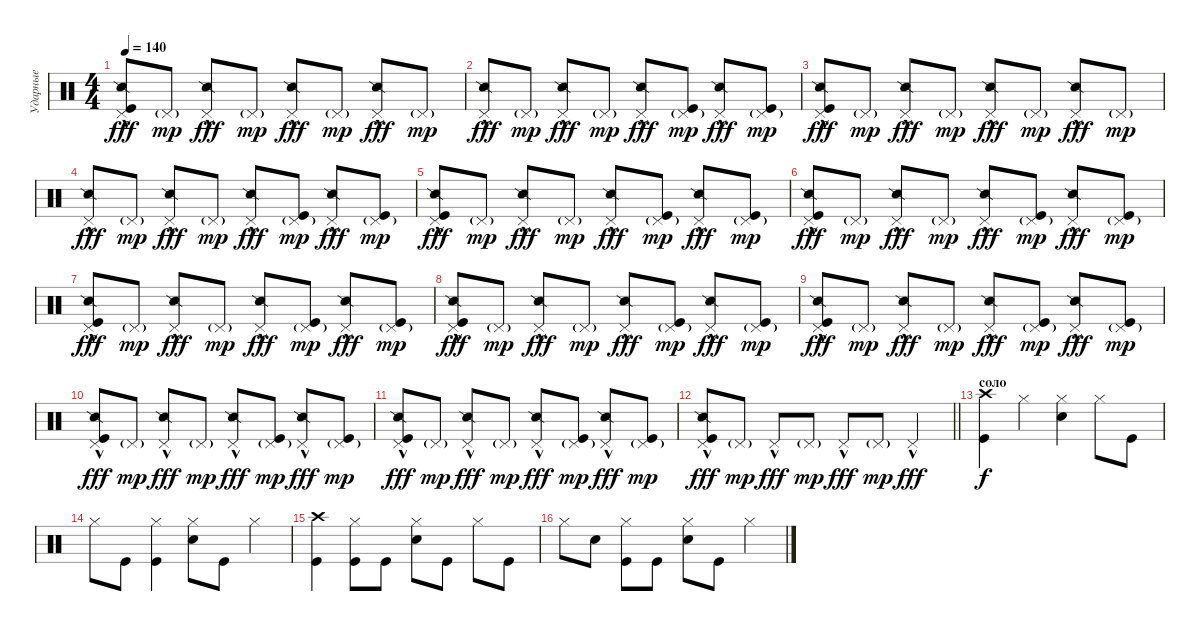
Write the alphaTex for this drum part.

\track ("Ударные" "Ударные") {instrument percussion}
\staff {score}
\articulation defaults
\ts (4 4)
\tempo 140
\clef neutral
\ks c
("Pedal Hi-Hat (hit)"{hac} "Snare (side stick) 2" "Kick (hit)").8{dy fff} "Pedal Hi-Hat (hit)"{g}.8{dy mp} ("Pedal Hi-Hat (hit)"{hac} "Snare (side stick) 2").8{dy fff} "Pedal Hi-Hat (hit)"{g}.8{dy mp} ("Pedal Hi-Hat (hit)"{hac} "Snare (side stick) 2").8{dy fff} "Pedal Hi-Hat (hit)"{g}.8{dy mp} ("Pedal Hi-Hat (hit)"{hac} "Snare (side stick) 2").8{dy fff} "Pedal Hi-Hat (hit)"{g}.8{dy mp} |
("Pedal Hi-Hat (hit)"{hac} "Snare (side stick) 2").8{dy fff} "Pedal Hi-Hat (hit)"{g}.8{dy mp} ("Pedal Hi-Hat (hit)"{hac} "Snare (side stick) 2").8{dy fff} "Pedal Hi-Hat (hit)"{g}.8{dy mp} ("Pedal Hi-Hat (hit)"{hac} "Snare (side stick) 2").8{dy fff} ("Pedal Hi-Hat (hit)"{g} "Kick (hit)").8{dy mp} ("Pedal Hi-Hat (hit)"{hac} "Snare (side stick) 2").8{dy fff} ("Pedal Hi-Hat (hit)"{g} "Kick (hit)").8{dy mp} |
("Pedal Hi-Hat (hit)"{hac} "Snare (side stick) 2" "Kick (hit)").8{dy fff} "Pedal Hi-Hat (hit)"{g}.8{dy mp} ("Pedal Hi-Hat (hit)"{hac} "Snare (side stick) 2").8{dy fff} "Pedal Hi-Hat (hit)"{g}.8{dy mp} ("Pedal Hi-Hat (hit)"{hac} "Snare (side stick) 2").8{dy fff} "Pedal Hi-Hat (hit)"{g}.8{dy mp} ("Pedal Hi-Hat (hit)"{hac} "Snare (side stick) 2").8{dy fff} "Pedal Hi-Hat (hit)"{g}.8{dy mp} |
("Pedal Hi-Hat (hit)"{hac} "Snare (side stick) 2").8{dy fff} "Pedal Hi-Hat (hit)"{g}.8{dy mp} ("Pedal Hi-Hat (hit)"{hac} "Snare (side stick) 2").8{dy fff} "Pedal Hi-Hat (hit)"{g}.8{dy mp} ("Pedal Hi-Hat (hit)"{hac} "Snare (side stick) 2").8{dy fff} ("Pedal Hi-Hat (hit)"{g} "Kick (hit)").8{dy mp} ("Pedal Hi-Hat (hit)"{hac} "Snare (side stick) 2").8{dy fff} ("Pedal Hi-Hat (hit)"{g} "Kick (hit)").8{dy mp} |
("Pedal Hi-Hat (hit)"{hac} "Snare (side stick) 2" "Kick (hit)").8{dy fff} "Pedal Hi-Hat (hit)"{g}.8{dy mp} ("Pedal Hi-Hat (hit)"{hac} "Snare (side stick) 2").8{dy fff} "Pedal Hi-Hat (hit)"{g}.8{dy mp} ("Pedal Hi-Hat (hit)"{hac} "Snare (side stick) 2").8{dy fff} ("Pedal Hi-Hat (hit)"{g} "Kick (hit)").8{dy mp} ("Pedal Hi-Hat (hit)"{hac} "Snare (side stick) 2").8{dy fff} ("Pedal Hi-Hat (hit)"{g} "Kick (hit)").8{dy mp} |
("Pedal Hi-Hat (hit)"{hac} "Snare (side stick) 2" "Kick (hit)").8{dy fff} "Pedal Hi-Hat (hit)"{g}.8{dy mp} ("Pedal Hi-Hat (hit)"{hac} "Snare (side stick) 2").8{dy fff} "Pedal Hi-Hat (hit)"{g}.8{dy mp} ("Pedal Hi-Hat (hit)"{hac} "Snare (side stick) 2").8{dy fff} ("Pedal Hi-Hat (hit)"{g} "Kick (hit)").8{dy mp} ("Pedal Hi-Hat (hit)"{hac} "Snare (side stick) 2").8{dy fff} ("Pedal Hi-Hat (hit)"{g} "Kick (hit)").8{dy mp} |
("Pedal Hi-Hat (hit)"{hac} "Snare (side stick) 2" "Kick (hit)").8{dy fff} "Pedal Hi-Hat (hit)"{g}.8{dy mp} ("Pedal Hi-Hat (hit)"{hac} "Snare (side stick) 2").8{dy fff} "Pedal Hi-Hat (hit)"{g}.8{dy mp} ("Pedal Hi-Hat (hit)"{hac} "Snare (side stick) 2").8{dy fff} ("Pedal Hi-Hat (hit)"{g} "Kick (hit)").8{dy mp} ("Pedal Hi-Hat (hit)"{hac} "Snare (side stick) 2").8{dy fff} ("Pedal Hi-Hat (hit)"{g} "Kick (hit)").8{dy mp} |
("Pedal Hi-Hat (hit)"{hac} "Snare (side stick) 2" "Kick (hit)").8{dy fff} "Pedal Hi-Hat (hit)"{g}.8{dy mp} ("Pedal Hi-Hat (hit)"{hac} "Snare (side stick) 2").8{dy fff} "Pedal Hi-Hat (hit)"{g}.8{dy mp} ("Pedal Hi-Hat (hit)"{hac} "Snare (side stick) 2").8{dy fff} ("Pedal Hi-Hat (hit)"{g} "Kick (hit)").8{dy mp} ("Pedal Hi-Hat (hit)"{hac} "Snare (side stick) 2").8{dy fff} ("Pedal Hi-Hat (hit)"{g} "Kick (hit)").8{dy mp} |
("Pedal Hi-Hat (hit)"{hac} "Snare (side stick) 2" "Kick (hit)").8{dy fff} "Pedal Hi-Hat (hit)"{g}.8{dy mp} ("Pedal Hi-Hat (hit)"{hac} "Snare (side stick) 2").8{dy fff} "Pedal Hi-Hat (hit)"{g}.8{dy mp} ("Pedal Hi-Hat (hit)"{hac} "Snare (side stick) 2").8{dy fff} ("Pedal Hi-Hat (hit)"{g} "Kick (hit)").8{dy mp} ("Pedal Hi-Hat (hit)"{hac} "Snare (side stick) 2").8{dy fff} ("Pedal Hi-Hat (hit)"{g} "Kick (hit)").8{dy mp} |
("Pedal Hi-Hat (hit)"{hac} "Snare (side stick) 2" "Kick (hit)").8{dy fff} "Pedal Hi-Hat (hit)"{g}.8{dy mp} ("Pedal Hi-Hat (hit)"{hac} "Snare (side stick) 2").8{dy fff} "Pedal Hi-Hat (hit)"{g}.8{dy mp} ("Pedal Hi-Hat (hit)"{hac} "Snare (side stick) 2").8{dy fff} ("Pedal Hi-Hat (hit)"{g} "Kick (hit)").8{dy mp} ("Pedal Hi-Hat (hit)"{hac} "Snare (side stick) 2").8{dy fff} ("Pedal Hi-Hat (hit)"{g} "Kick (hit)").8{dy mp} |
("Pedal Hi-Hat (hit)"{hac} "Snare (side stick) 2" "Kick (hit)").8{dy fff} "Pedal Hi-Hat (hit)"{g}.8{dy mp} ("Pedal Hi-Hat (hit)"{hac} "Snare (side stick) 2").8{dy fff} "Pedal Hi-Hat (hit)"{g}.8{dy mp} ("Pedal Hi-Hat (hit)"{hac} "Snare (side stick) 2").8{dy fff} ("Pedal Hi-Hat (hit)"{g} "Kick (hit)").8{dy mp} ("Pedal Hi-Hat (hit)"{hac} "Snare (side stick) 2").8{dy fff} ("Pedal Hi-Hat (hit)"{g} "Kick (hit)").8{dy mp} |
\barLineRight lightlight
("Pedal Hi-Hat (hit)"{hac} "Snare (side stick) 2" "Kick (hit)").8{dy fff} "Pedal Hi-Hat (hit)"{g}.8{dy mp} "Pedal Hi-Hat (hit)"{hac}.8{dy fff} "Pedal Hi-Hat (hit)"{g}.8{dy mp} "Pedal Hi-Hat (hit)"{hac}.8{dy fff} "Pedal Hi-Hat (hit)"{g}.8{dy mp} "Pedal Hi-Hat (hit)"{hac}.4{dy fff} |
\section ("" "соло")
("Crash high (hit)" "Kick (hit)").4{dy f} "Hi-Hat (closed)".4 ("Hi-Hat (closed)" "Snare (hit) 2").4 "Hi-Hat (closed)".8 "Kick (hit)".8 |
"Hi-Hat (closed)".8 "Kick (hit)".8 ("Hi-Hat (closed)" "Kick (hit)").4 ("Hi-Hat (closed)" "Snare (hit) 2").8 "Kick (hit)".8 "Hi-Hat (closed)".4 |
("Crash high (hit)" "Kick (hit)").4 ("Hi-Hat (closed)" "Kick (hit)").8 "Kick (hit)".8 ("Hi-Hat (closed)" "Snare (hit) 2").8 "Kick (hit)".8 "Hi-Hat (closed)".8 "Kick (hit)".8 |
"Hi-Hat (closed)".8 "Snare (hit) 2".8 ("Hi-Hat (closed)" "Kick (hit)").8 "Kick (hit)".8 ("Hi-Hat (closed)" "Snare (hit) 2").8 "Kick (hit)".8 "Hi-Hat (closed)".4
